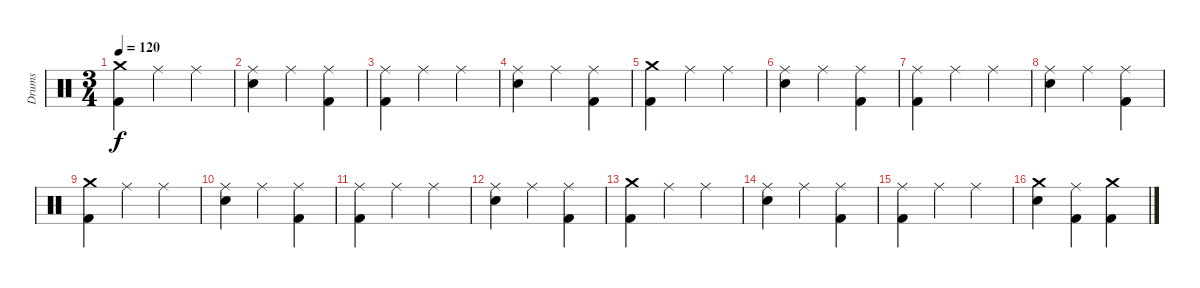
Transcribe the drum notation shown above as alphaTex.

\track ("Drums" "Drums") {instrument percussion}
\staff {score}
\articulation defaults
\ts (3 4)
\tempo 120
\clef neutral
\ks c
("Crash medium (hit)" "Kick (hit) 2").4{dy f} "Ride (middle)".4 "Ride (middle)".4 |
("Ride (middle)" "Electric Snare (hit)").4 "Ride (middle)".4 ("Ride (middle)" "Kick (hit) 2").4 |
("Ride (middle)" "Kick (hit) 2").4 "Ride (middle)".4 "Ride (middle)".4 |
("Ride (middle)" "Electric Snare (hit)").4 "Ride (middle)".4 ("Ride (middle)" "Kick (hit) 2").4 |
("Crash medium (hit)" "Kick (hit) 2").4 "Ride (middle)".4 "Ride (middle)".4 |
("Ride (middle)" "Electric Snare (hit)").4 "Ride (middle)".4 ("Ride (middle)" "Kick (hit) 2").4 |
("Ride (middle)" "Kick (hit) 2").4 "Ride (middle)".4 "Ride (middle)".4 |
("Ride (middle)" "Electric Snare (hit)").4 "Ride (middle)".4 ("Ride (middle)" "Kick (hit) 2").4 |
("Crash medium (hit)" "Kick (hit) 2").4 "Ride (middle)".4 "Ride (middle)".4 |
("Ride (middle)" "Electric Snare (hit)").4 "Ride (middle)".4 ("Ride (middle)" "Kick (hit) 2").4 |
("Ride (middle)" "Kick (hit) 2").4 "Ride (middle)".4 "Ride (middle)".4 |
("Ride (middle)" "Electric Snare (hit)").4 "Ride (middle)".4 ("Ride (middle)" "Kick (hit) 2").4 |
("Crash medium (hit)" "Kick (hit) 2").4 "Ride (middle)".4 "Ride (middle)".4 |
("Ride (middle)" "Electric Snare (hit)").4 "Ride (middle)".4 ("Ride (middle)" "Kick (hit) 2").4 |
("Ride (middle)" "Kick (hit) 2").4 "Ride (middle)".4 "Ride (middle)".4 |
("Crash medium (hit)" "Electric Snare (hit)").4 ("Ride (middle)" "Kick (hit) 2").4 ("Crash medium (hit)" "Kick (hit) 2").4
